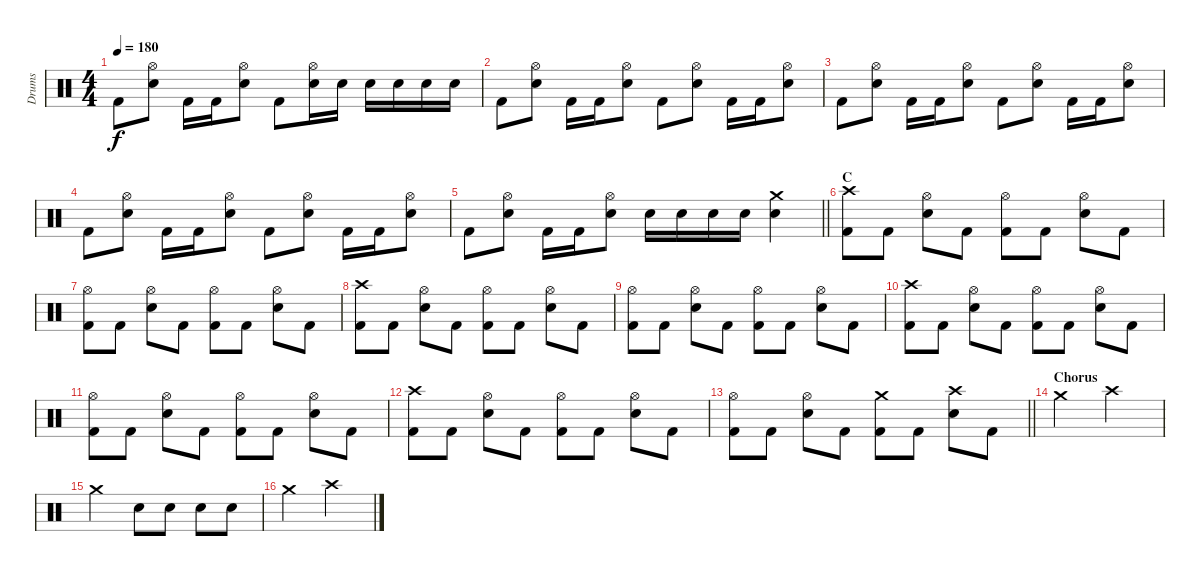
\track ("Drums" "Drums") {instrument percussion}
\staff {score}
\articulation defaults
\ts (4 4)
\tempo 180
\clef neutral
\ks c "Kick (hit) 2".8{dy f}
("Hi-Hat (open)" "Electric Snare (hit)").8 "Kick (hit) 2".16 "Kick (hit) 2".16 ("Hi-Hat (open)" "Electric Snare (hit)").8 "Kick (hit) 2".8 ("Hi-Hat (open)" "Electric Snare (hit)").16 "Electric Snare (hit)".16 "Electric Snare (hit)".16 "Electric Snare (hit)".16 "Electric Snare (hit)".16 "Electric Snare (hit)".16 |
"Kick (hit) 2".8 ("Hi-Hat (open)" "Electric Snare (hit)").8 "Kick (hit) 2".16 "Kick (hit) 2".16 ("Hi-Hat (open)" "Electric Snare (hit)").8 "Kick (hit) 2".8 ("Hi-Hat (open)" "Electric Snare (hit)").8 "Kick (hit) 2".16 "Kick (hit) 2".16 ("Hi-Hat (open)" "Electric Snare (hit)").8 |
"Kick (hit) 2".8 ("Hi-Hat (open)" "Electric Snare (hit)").8 "Kick (hit) 2".16 "Kick (hit) 2".16 ("Hi-Hat (open)" "Electric Snare (hit)").8 "Kick (hit) 2".8 ("Hi-Hat (open)" "Electric Snare (hit)").8 "Kick (hit) 2".16 "Kick (hit) 2".16 ("Hi-Hat (open)" "Electric Snare (hit)").8 |
"Kick (hit) 2".8 ("Hi-Hat (open)" "Electric Snare (hit)").8 "Kick (hit) 2".16 "Kick (hit) 2".16 ("Hi-Hat (open)" "Electric Snare (hit)").8 "Kick (hit) 2".8 ("Hi-Hat (open)" "Electric Snare (hit)").8 "Kick (hit) 2".16 "Kick (hit) 2".16 ("Hi-Hat (open)" "Electric Snare (hit)").8 |
\barLineRight lightlight "Kick (hit) 2".8
("Hi-Hat (open)" "Electric Snare (hit)").8 "Kick (hit) 2".16 "Kick (hit) 2".16 ("Hi-Hat (open)" "Electric Snare (hit)").8 "Electric Snare (hit)".16 "Electric Snare (hit)".16 "Electric Snare (hit)".16 "Electric Snare (hit)".16 ("Crash medium (hit)" "Electric Snare (hit)").4 |
\section ("" "C")
("Crash high (hit)" "Kick (hit) 2").8 "Kick (hit) 2".8 ("Hi-Hat (open)" "Electric Snare (hit)").8 "Kick (hit) 2".8 ("Hi-Hat (open)" "Kick (hit) 2").8 "Kick (hit) 2".8 ("Hi-Hat (open)" "Electric Snare (hit)").8 "Kick (hit) 2".8 |
("Hi-Hat (open)" "Kick (hit) 2").8 "Kick (hit) 2".8 ("Hi-Hat (open)" "Electric Snare (hit)").8 "Kick (hit) 2".8 ("Hi-Hat (open)" "Kick (hit) 2").8 "Kick (hit) 2".8 ("Hi-Hat (open)" "Electric Snare (hit)").8 "Kick (hit) 2".8 |
("Crash high (hit)" "Kick (hit) 2").8 "Kick (hit) 2".8 ("Hi-Hat (open)" "Electric Snare (hit)").8 "Kick (hit) 2".8 ("Hi-Hat (open)" "Kick (hit) 2").8 "Kick (hit) 2".8 ("Hi-Hat (open)" "Electric Snare (hit)").8 "Kick (hit) 2".8 |
("Hi-Hat (open)" "Kick (hit) 2").8 "Kick (hit) 2".8 ("Hi-Hat (open)" "Electric Snare (hit)").8 "Kick (hit) 2".8 ("Hi-Hat (open)" "Kick (hit) 2").8 "Kick (hit) 2".8 ("Hi-Hat (open)" "Electric Snare (hit)").8 "Kick (hit) 2".8 |
("Crash high (hit)" "Kick (hit) 2").8 "Kick (hit) 2".8 ("Hi-Hat (open)" "Electric Snare (hit)").8 "Kick (hit) 2".8 ("Hi-Hat (open)" "Kick (hit) 2").8 "Kick (hit) 2".8 ("Hi-Hat (open)" "Electric Snare (hit)").8 "Kick (hit) 2".8 |
("Hi-Hat (open)" "Kick (hit) 2").8 "Kick (hit) 2".8 ("Hi-Hat (open)" "Electric Snare (hit)").8 "Kick (hit) 2".8 ("Hi-Hat (open)" "Kick (hit) 2").8 "Kick (hit) 2".8 ("Hi-Hat (open)" "Electric Snare (hit)").8 "Kick (hit) 2".8 |
("Crash high (hit)" "Kick (hit) 2").8 "Kick (hit) 2".8 ("Hi-Hat (open)" "Electric Snare (hit)").8 "Kick (hit) 2".8 ("Hi-Hat (open)" "Kick (hit) 2").8 "Kick (hit) 2".8 ("Hi-Hat (open)" "Electric Snare (hit)").8 "Kick (hit) 2".8 |
\barLineRight lightlight
("Hi-Hat (open)" "Kick (hit) 2").8 "Kick (hit) 2".8 ("Hi-Hat (open)" "Electric Snare (hit)").8 "Kick (hit) 2".8 ("Crash medium (hit)" "Kick (hit) 2").8 "Kick (hit) 2".8 ("Crash high (hit)" "Electric Snare (hit)").8 "Kick (hit) 2".8 |
\section ("" "Chorus")
"Crash medium (hit)".2 "Crash high (hit)".2 |
"Crash medium (hit)".2 "Electric Snare (hit)".8 "Electric Snare (hit)".8 "Electric Snare (hit)".8 "Electric Snare (hit)".8 |
"Crash medium (hit)".2 "Crash high (hit)".2
